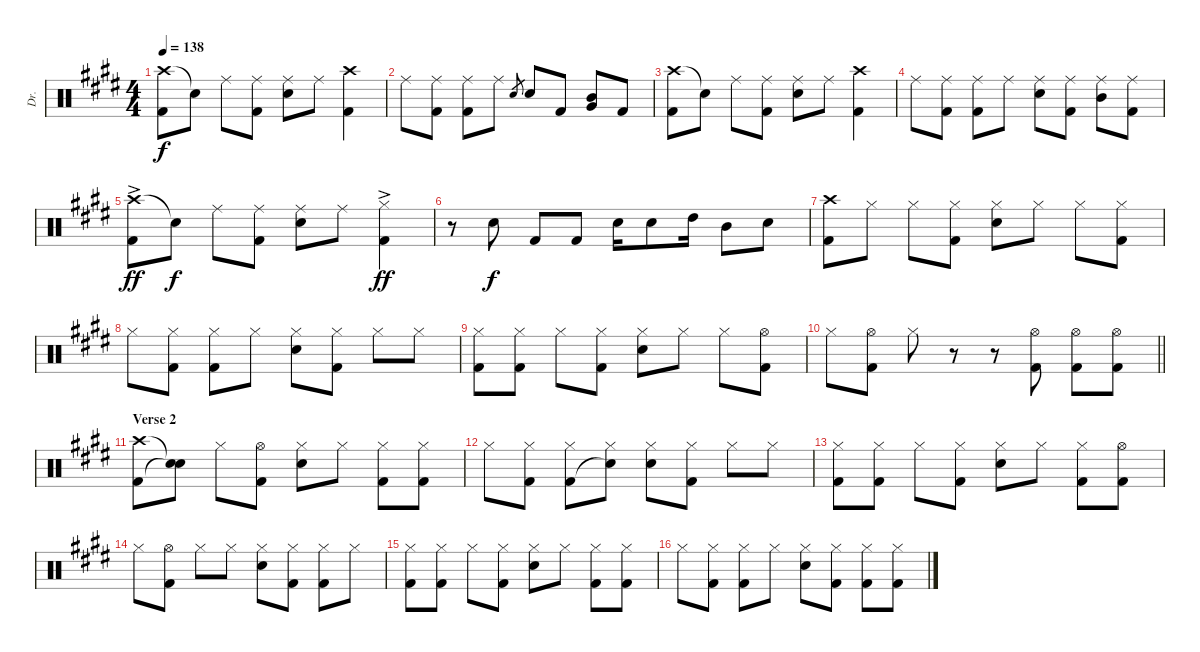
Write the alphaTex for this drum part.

\track ("Dr." "Dr.") {instrument percussion}
\staff {score}
\articulation defaults
\ts (4 4)
\tempo 138
\clef neutral
\ks e
("Crash high (hit)" "Kick (hit) 2").8{dy f} "Snare (hit)"{t}.8 "Ride (middle)".8 ("Ride (middle)" "Kick (hit) 2").8 ("Ride (middle)" "Snare (hit) 2").8 "Ride (middle)".8 ("Crash high (hit)" "Kick (hit) 2").4 |
"Ride (middle)".8 ("Ride (middle)" "Kick (hit) 2").8 ("Ride (middle)" "Kick (hit) 2").8 "Ride (middle)".8 "Snare (hit) 2".8{gr} "Snare (hit) 2".8 "Kick (hit) 2".8 ("Mid Tom (hit)" "Very Low Tom (hit)").8 "Kick (hit) 2".8 |
("Crash high (hit)" "Kick (hit) 2").8 "Snare (hit)"{t}.8 "Ride (middle)".8 ("Ride (middle)" "Kick (hit) 2").8 ("Ride (middle)" "Snare (hit) 2").8 "Ride (middle)".8 ("Crash high (hit)" "Kick (hit) 2").4 |
"Ride (middle)".8 ("Ride (middle)" "Kick (hit) 2").8 ("Ride (middle)" "Kick (hit) 2").8 "Ride (middle)".8 ("Ride (middle)" "Snare (hit) 2").8 ("Ride (middle)" "Kick (hit) 2").8 ("Ride (middle)" "Mid Tom (hit)").8 ("Ride (middle)" "Kick (hit) 2").8 |
("Crash high (hit)"{ac} "Kick (hit) 2").8{dy ff} "Snare (hit)"{t}.8{dy f} "Ride (middle)".8 ("Ride (middle)" "Kick (hit) 2").8 ("Ride (middle)" "Snare (hit) 2").8 "Ride (middle)".8 ("Hi-Hat (closed)"{ac} "Kick (hit) 2"{ac}).4{dy ff} |
r.8 "Snare (hit) 2".8{dy f} "Kick (hit) 2".8 "Kick (hit) 2".8 "Snare (hit) 2".16 "Snare (hit) 2".8 "High Tom (hit)".16 "Mid Tom (hit)".8 "Snare (hit) 2".8 |
("Crash high (hit)" "Kick (hit) 2").8 "Hi-Hat (closed)".8 "Hi-Hat (closed)".8 ("Hi-Hat (closed)" "Kick (hit) 2").8 ("Hi-Hat (closed)" "Snare (hit) 2").8 "Hi-Hat (closed)".8 "Hi-Hat (closed)".8 ("Hi-Hat (closed)" "Kick (hit) 2").8 |
"Hi-Hat (closed)".8 ("Hi-Hat (closed)" "Kick (hit) 2").8 ("Hi-Hat (closed)" "Kick (hit) 2").8 "Hi-Hat (closed)".8 ("Hi-Hat (closed)" "Snare (hit) 2").8 ("Hi-Hat (closed)" "Kick (hit) 2").8 "Hi-Hat (closed)".8 "Hi-Hat (closed)".8 |
("Hi-Hat (closed)" "Kick (hit) 2").8 ("Hi-Hat (closed)" "Kick (hit) 2").8 "Hi-Hat (closed)".8 ("Hi-Hat (closed)" "Kick (hit) 2").8 ("Hi-Hat (closed)" "Snare (hit) 2").8 "Hi-Hat (closed)".8 "Hi-Hat (closed)".8 ("Hi-Hat (open)" "Kick (hit) 2").8 |
\barLineRight lightlight "Hi-Hat (closed)".8
("Hi-Hat (open)" "Kick (hit) 2").8 "Hi-Hat (closed)".8 r.8 r.8 ("Hi-Hat (open)" "Kick (hit) 2").8 ("Hi-Hat (open)" "Kick (hit) 2").8 ("Hi-Hat (open)" "Kick (hit) 2").8 |
\section ("" "Verse 2")
("Crash high (hit)" "Kick (hit) 2").8 ("Snare (hit)"{t} "Snare (hit)"{t}).8 "Hi-Hat (closed)".8 ("Hi-Hat (open)" "Kick (hit) 2").8 ("Hi-Hat (closed)" "Snare (hit) 2").8 "Hi-Hat (closed)".8 ("Hi-Hat (closed)" "Kick (hit) 2").8 ("Hi-Hat (closed)" "Kick (hit) 2").8 |
"Hi-Hat (closed)".8 ("Hi-Hat (closed)" "Kick (hit) 2").8 ("Hi-Hat (closed)" "Kick (hit) 2").8 ("Hi-Hat (closed)" "Snare (hit)"{t}).8 ("Hi-Hat (closed)" "Snare (hit) 2").8 ("Hi-Hat (closed)" "Kick (hit) 2").8 "Hi-Hat (closed)".8 "Hi-Hat (closed)".8 |
("Hi-Hat (closed)" "Kick (hit) 2").8 ("Hi-Hat (closed)" "Kick (hit) 2").8 "Hi-Hat (closed)".8 ("Hi-Hat (closed)" "Kick (hit) 2").8 ("Hi-Hat (closed)" "Snare (hit) 2").8 "Hi-Hat (closed)".8 ("Hi-Hat (closed)" "Kick (hit) 2").8 ("Hi-Hat (open)" "Kick (hit) 2").8 |
"Hi-Hat (closed)".8 ("Hi-Hat (open)" "Kick (hit) 2").8 "Hi-Hat (closed)".8 "Hi-Hat (closed)".8 ("Hi-Hat (closed)" "Snare (hit) 2").8 ("Hi-Hat (closed)" "Kick (hit) 2").8 ("Hi-Hat (closed)" "Kick (hit) 2").8 "Hi-Hat (closed)".8 |
("Hi-Hat (closed)" "Kick (hit) 2").8 ("Hi-Hat (closed)" "Kick (hit) 2").8 "Hi-Hat (closed)".8 ("Hi-Hat (closed)" "Kick (hit) 2").8 ("Hi-Hat (closed)" "Snare (hit) 2").8 "Hi-Hat (closed)".8 ("Hi-Hat (closed)" "Kick (hit) 2").8 ("Hi-Hat (closed)" "Kick (hit) 2").8 |
"Hi-Hat (closed)".8 ("Hi-Hat (closed)" "Kick (hit) 2").8 ("Hi-Hat (closed)" "Kick (hit) 2").8 "Hi-Hat (closed)".8 ("Hi-Hat (closed)" "Snare (hit) 2").8 ("Hi-Hat (closed)" "Kick (hit) 2").8 ("Hi-Hat (closed)" "Kick (hit) 2").8 ("Hi-Hat (closed)" "Kick (hit) 2").8
